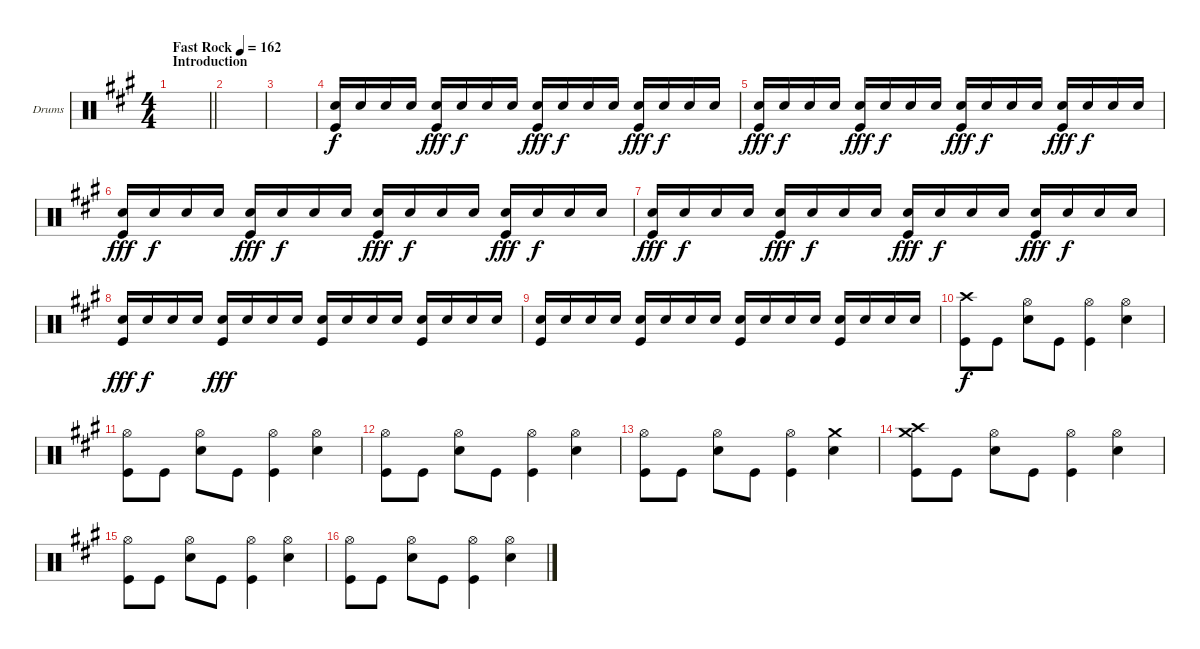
\defaultSystemsLayout 4
\bracketExtendMode groupsimilarinstruments
\firstSystemTrackNameOrientation horizontal
\otherSystemsTrackNameOrientation horizontal
\track ("Drums" "Drums") {instrument percussion}
\staff {score}
\articulation defaults
\ts (4 4)
\section ("" "Introduction")
\tempo (162 "Fast Rock")
\clef neutral
\scale
1.08827
\barLineRight lightlight
\ks a
|
\scale
0.911728 |
\scale
1.05801 |
\scale
0.941992 ("Snare (hit) 2" "Kick (hit)").16 "Snare (hit) 2".16{dy f} "Snare (hit) 2".16 "Snare (hit) 2".16 ("Snare (hit) 2" "Kick (hit)").16{dy fff} "Snare (hit) 2".16{dy f} "Snare (hit) 2".16 "Snare (hit) 2".16 ("Snare (hit) 2" "Kick (hit)").16{dy fff} "Snare (hit) 2".16{dy f} "Snare (hit) 2".16 "Snare (hit) 2".16 ("Snare (hit) 2" "Kick (hit)").16{dy fff} "Snare (hit) 2".16{dy f} "Snare (hit) 2".16 "Snare (hit) 2".16 |
\scale
1.05801 ("Snare (hit) 2" "Kick (hit)").16{dy fff} "Snare (hit) 2".16{dy f} "Snare (hit) 2".16 "Snare (hit) 2".16 ("Snare (hit) 2" "Kick (hit)").16{dy fff} "Snare (hit) 2".16{dy f} "Snare (hit) 2".16 "Snare (hit) 2".16 ("Snare (hit) 2" "Kick (hit)").16{dy fff} "Snare (hit) 2".16{dy f} "Snare (hit) 2".16 "Snare (hit) 2".16 ("Snare (hit) 2" "Kick (hit)").16{dy fff} "Snare (hit) 2".16{dy f} "Snare (hit) 2".16 "Snare (hit) 2".16 |
\scale
0.941992 ("Snare (hit) 2" "Kick (hit)").16{dy fff} "Snare (hit) 2".16{dy f} "Snare (hit) 2".16 "Snare (hit) 2".16 ("Snare (hit) 2" "Kick (hit)").16{dy fff} "Snare (hit) 2".16{dy f} "Snare (hit) 2".16 "Snare (hit) 2".16 ("Snare (hit) 2" "Kick (hit)").16{dy fff} "Snare (hit) 2".16{dy f} "Snare (hit) 2".16 "Snare (hit) 2".16 ("Snare (hit) 2" "Kick (hit)").16{dy fff} "Snare (hit) 2".16{dy f} "Snare (hit) 2".16 "Snare (hit) 2".16 |
\scale
1.05801 ("Snare (hit) 2" "Kick (hit)").16{dy fff} "Snare (hit) 2".16{dy f} "Snare (hit) 2".16 "Snare (hit) 2".16 ("Snare (hit) 2" "Kick (hit)").16{dy fff} "Snare (hit) 2".16{dy f} "Snare (hit) 2".16 "Snare (hit) 2".16 ("Snare (hit) 2" "Kick (hit)").16{dy fff} "Snare (hit) 2".16{dy f} "Snare (hit) 2".16 "Snare (hit) 2".16 ("Snare (hit) 2" "Kick (hit)").16{dy fff} "Snare (hit) 2".16{dy f} "Snare (hit) 2".16 "Snare (hit) 2".16 |
\scale
0.941992 ("Snare (hit) 2" "Kick (hit)").16{dy fff} "Snare (hit) 2".16{dy f} "Snare (hit) 2".16 "Snare (hit) 2".16 ("Snare (hit) 2" "Kick (hit)").16{dy fff} "Snare (hit) 2".16 "Snare (hit) 2".16 "Snare (hit) 2".16 ("Snare (hit) 2" "Kick (hit)").16 "Snare (hit) 2".16 "Snare (hit) 2".16 "Snare (hit) 2".16 ("Snare (hit) 2" "Kick (hit)").16 "Snare (hit) 2".16 "Snare (hit) 2".16 "Snare (hit) 2".16 |
\scale
1.05801 ("Snare (hit) 2" "Kick (hit)").16 "Snare (hit) 2".16 "Snare (hit) 2".16 "Snare (hit) 2".16 ("Snare (hit) 2" "Kick (hit)").16 "Snare (hit) 2".16 "Snare (hit) 2".16 "Snare (hit) 2".16 ("Snare (hit) 2" "Kick (hit)").16 "Snare (hit) 2".16 "Snare (hit) 2".16 "Snare (hit) 2".16 ("Snare (hit) 2" "Kick (hit)").16 "Snare (hit) 2".16 "Snare (hit) 2".16 "Snare (hit) 2".16 |
\scale
0.941992 ("Crash high (hit)" "Kick (hit)").8{dy f} "Kick (hit)".8 ("Hi-Hat (open)" "Snare (hit) 2").8 "Kick (hit)".8 ("Hi-Hat (open)" "Kick (hit)").4 ("Hi-Hat (open)" "Snare (hit) 2").4 |
\scale
1.05801 ("Hi-Hat (open)" "Kick (hit)").8 "Kick (hit)".8 ("Hi-Hat (open)" "Snare (hit) 2").8 "Kick (hit)".8 ("Hi-Hat (open)" "Kick (hit)").4 ("Hi-Hat (open)" "Snare (hit) 2").4 |
\scale
0.941992 ("Hi-Hat (open)" "Kick (hit)").8 "Kick (hit)".8 ("Hi-Hat (open)" "Snare (hit) 2").8 "Kick (hit)".8 ("Hi-Hat (open)" "Kick (hit)").4 ("Hi-Hat (open)" "Snare (hit) 2").4 |
\scale
1.05801 ("Hi-Hat (open)" "Kick (hit)").8 "Kick (hit)".8 ("Hi-Hat (open)" "Snare (hit) 2").8 "Kick (hit)".8 ("Hi-Hat (open)" "Kick (hit)").4 ("Crash medium (hit)" "Snare (hit) 2").4 |
\scale
0.941992 ("Crash medium (hit)" "Crash high (hit)" "Kick (hit)").8 "Kick (hit)".8 ("Hi-Hat (open)" "Snare (hit) 2").8 "Kick (hit)".8 ("Hi-Hat (open)" "Kick (hit)").4 ("Hi-Hat (open)" "Snare (hit) 2").4 |
\scale
1.05801 ("Hi-Hat (open)" "Kick (hit)").8 "Kick (hit)".8 ("Hi-Hat (open)" "Snare (hit) 2").8 "Kick (hit)".8 ("Hi-Hat (open)" "Kick (hit)").4 ("Hi-Hat (open)" "Snare (hit) 2").4 |
\scale
0.941992 ("Hi-Hat (open)" "Kick (hit)").8 "Kick (hit)".8 ("Hi-Hat (open)" "Snare (hit) 2").8 "Kick (hit)".8 ("Hi-Hat (open)" "Kick (hit)").4 ("Hi-Hat (open)" "Snare (hit) 2").4
